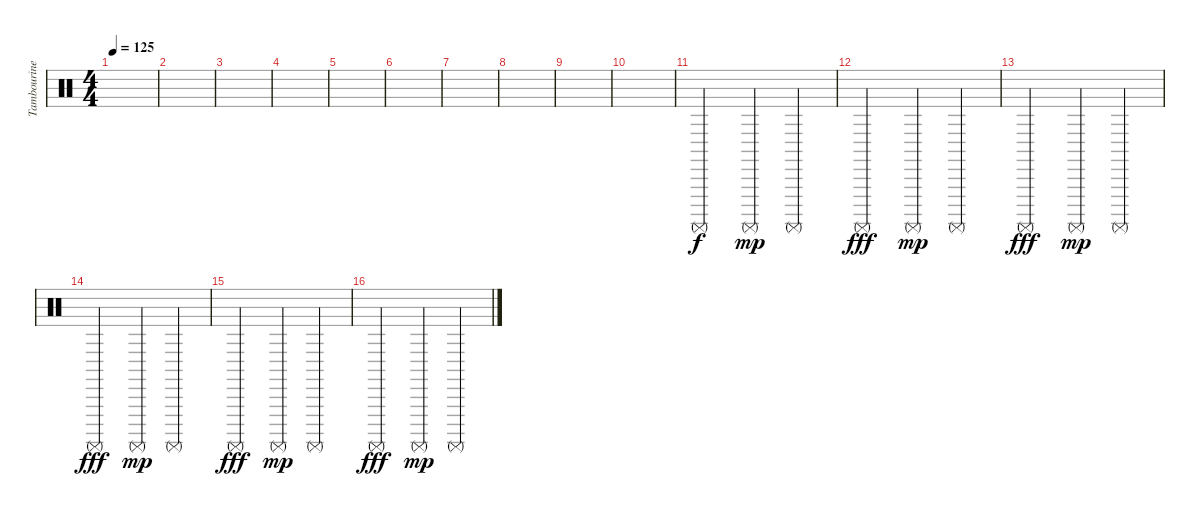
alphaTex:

\track ("Tambourine" "Tambourine") {instrument percussion}
\staff {score}
\articulation defaults
\ts (4 4)
\tempo 125
\clef neutral
\ks c
|
|
|
|
|
|
|
|
|
|
"Surdo (mute)".2 "Surdo (mute)".4{dy mp} "Surdo (mute)".4 |
"Surdo (mute)".2{dy fff} "Surdo (mute)".4{dy mp} "Surdo (mute)".4 |
"Surdo (mute)".2{dy fff} "Surdo (mute)".4{dy mp} "Surdo (mute)".4 |
"Surdo (mute)".2{dy fff} "Surdo (mute)".4{dy mp} "Surdo (mute)".4 |
"Surdo (mute)".2{dy fff} "Surdo (mute)".4{dy mp} "Surdo (mute)".4 |
"Surdo (mute)".2{dy fff} "Surdo (mute)".4{dy mp} "Surdo (mute)".4
